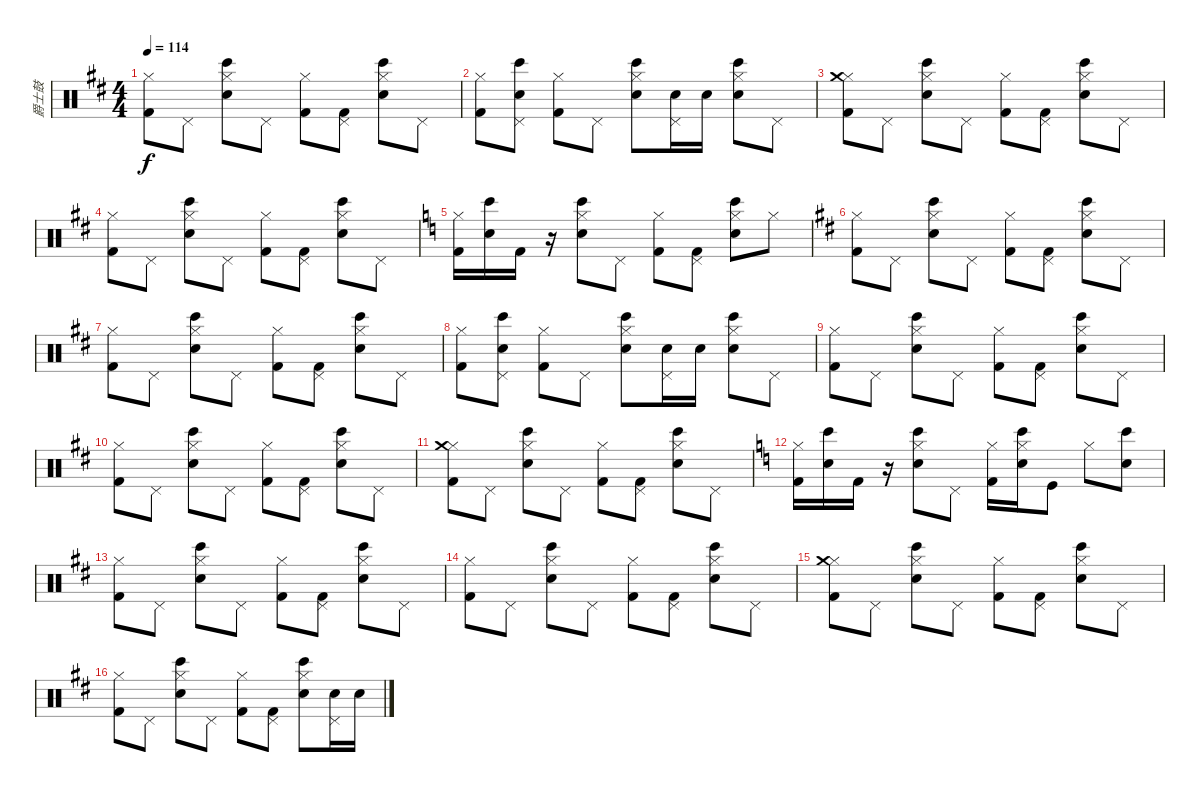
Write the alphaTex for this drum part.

\track ("爵士鼓" "爵士鼓") {instrument percussion}
\staff {score}
\articulation defaults
\ts (4 4)
\tempo 114
\clef neutral
\ks d
("Hi-Hat (closed)" "Kick (hit) 2").8{dy f} "Pedal Hi-Hat (hit)".8 ("Hi-Hat (closed)" "Snare (hit) 2" "Bongo High (hit)").8 "Pedal Hi-Hat (hit)".8 ("Hi-Hat (closed)" "Kick (hit) 2").8 ("Pedal Hi-Hat (hit)" "Kick (hit) 2").8 ("Hi-Hat (closed)" "Snare (hit) 2" "Bongo High (hit)").8 "Pedal Hi-Hat (hit)".8 |
("Hi-Hat (closed)" "Kick (hit) 2").8 ("Pedal Hi-Hat (hit)" "Snare (hit) 2" "Bongo High (hit)").8 ("Hi-Hat (closed)" "Kick (hit) 2").8 "Pedal Hi-Hat (hit)".8 ("Hi-Hat (closed)" "Snare (hit) 2" "Bongo High (hit)").8 ("Pedal Hi-Hat (hit)" "Snare (hit) 2").16 "Snare (hit) 2".16 ("Hi-Hat (closed)" "Snare (hit) 2" "Bongo High (hit)").8 "Pedal Hi-Hat (hit)".8 |
("Hi-Hat (closed)" "Kick (hit) 2" "Crash medium (hit)").8 "Pedal Hi-Hat (hit)".8 ("Hi-Hat (closed)" "Snare (hit) 2" "Bongo High (hit)").8 "Pedal Hi-Hat (hit)".8 ("Hi-Hat (closed)" "Kick (hit) 2").8 ("Pedal Hi-Hat (hit)" "Kick (hit) 2").8 ("Hi-Hat (closed)" "Snare (hit) 2" "Bongo High (hit)").8 "Pedal Hi-Hat (hit)".8 |
("Hi-Hat (closed)" "Kick (hit) 2").8 "Pedal Hi-Hat (hit)".8 ("Hi-Hat (closed)" "Snare (hit) 2" "Bongo High (hit)").8 "Pedal Hi-Hat (hit)".8 ("Hi-Hat (closed)" "Kick (hit) 2").8 ("Pedal Hi-Hat (hit)" "Kick (hit) 2").8 ("Hi-Hat (closed)" "Snare (hit) 2" "Bongo High (hit)").8 "Pedal Hi-Hat (hit)".8 |
\ks c
("Hi-Hat (closed)" "Kick (hit) 2").16 ("Snare (hit) 2" "Bongo High (hit)").16 "Kick (hit) 2".16 r.16 ("Hi-Hat (closed)" "Snare (hit) 2" "Bongo High (hit)").8 "Pedal Hi-Hat (hit)".8 ("Hi-Hat (closed)" "Kick (hit) 2").8 ("Pedal Hi-Hat (hit)" "Kick (hit) 2").8 ("Snare (hit) 2" "Hi-Hat (closed)" "Bongo High (hit)").8 "Hi-Hat (closed)".8 |
\ks d
("Hi-Hat (closed)" "Kick (hit) 2").8 "Pedal Hi-Hat (hit)".8 ("Hi-Hat (closed)" "Snare (hit) 2" "Bongo High (hit)").8 "Pedal Hi-Hat (hit)".8 ("Hi-Hat (closed)" "Kick (hit) 2").8 ("Pedal Hi-Hat (hit)" "Kick (hit) 2").8 ("Hi-Hat (closed)" "Snare (hit) 2" "Bongo High (hit)").8 "Pedal Hi-Hat (hit)".8 |
("Hi-Hat (closed)" "Kick (hit) 2").8 "Pedal Hi-Hat (hit)".8 ("Hi-Hat (closed)" "Snare (hit) 2" "Bongo High (hit)").8 "Pedal Hi-Hat (hit)".8 ("Hi-Hat (closed)" "Kick (hit) 2").8 ("Pedal Hi-Hat (hit)" "Kick (hit) 2").8 ("Hi-Hat (closed)" "Snare (hit) 2" "Bongo High (hit)").8 "Pedal Hi-Hat (hit)".8 |
("Hi-Hat (closed)" "Kick (hit) 2").8 ("Pedal Hi-Hat (hit)" "Snare (hit) 2" "Bongo High (hit)").8 ("Hi-Hat (closed)" "Kick (hit) 2").8 "Pedal Hi-Hat (hit)".8 ("Hi-Hat (closed)" "Snare (hit) 2" "Bongo High (hit)").8 ("Pedal Hi-Hat (hit)" "Snare (hit) 2").16 "Snare (hit) 2".16 ("Hi-Hat (closed)" "Snare (hit) 2" "Bongo High (hit)").8 "Pedal Hi-Hat (hit)".8 |
("Hi-Hat (closed)" "Kick (hit) 2").8 "Pedal Hi-Hat (hit)".8 ("Hi-Hat (closed)" "Snare (hit) 2" "Bongo High (hit)").8 "Pedal Hi-Hat (hit)".8 ("Hi-Hat (closed)" "Kick (hit) 2").8 ("Pedal Hi-Hat (hit)" "Kick (hit) 2").8 ("Hi-Hat (closed)" "Snare (hit) 2" "Bongo High (hit)").8 "Pedal Hi-Hat (hit)".8 |
("Hi-Hat (closed)" "Kick (hit) 2").8 "Pedal Hi-Hat (hit)".8 ("Hi-Hat (closed)" "Snare (hit) 2" "Bongo High (hit)").8 "Pedal Hi-Hat (hit)".8 ("Hi-Hat (closed)" "Kick (hit) 2").8 ("Pedal Hi-Hat (hit)" "Kick (hit) 2").8 ("Hi-Hat (closed)" "Snare (hit) 2" "Bongo High (hit)").8 "Pedal Hi-Hat (hit)".8 |
("Hi-Hat (closed)" "Kick (hit) 2" "Crash medium (hit)").8 "Pedal Hi-Hat (hit)".8 ("Hi-Hat (closed)" "Snare (hit) 2" "Bongo High (hit)").8 "Pedal Hi-Hat (hit)".8 ("Hi-Hat (closed)" "Kick (hit) 2").8 ("Pedal Hi-Hat (hit)" "Kick (hit) 2").8 ("Hi-Hat (closed)" "Snare (hit) 2" "Bongo High (hit)").8 "Pedal Hi-Hat (hit)".8 |
\ks c
("Hi-Hat (closed)" "Kick (hit) 2").16 ("Snare (hit) 2" "Bongo High (hit)").16 "Kick (hit) 2".16 r.16 ("Hi-Hat (closed)" "Snare (hit) 2" "Bongo High (hit)").8 "Pedal Hi-Hat (hit)".8 ("Hi-Hat (closed)" "Kick (hit) 2").16 ("Snare (hit) 2" "Hi-Hat (closed)" "Bongo High (hit)").16 "Kick (hit)".8 "Hi-Hat (closed)".8 ("Snare (hit) 2" "Bongo High (hit)").8 |
\ks d
("Hi-Hat (closed)" "Kick (hit) 2").8 "Pedal Hi-Hat (hit)".8 ("Hi-Hat (closed)" "Snare (hit) 2" "Bongo High (hit)").8 "Pedal Hi-Hat (hit)".8 ("Hi-Hat (closed)" "Kick (hit) 2").8 ("Pedal Hi-Hat (hit)" "Kick (hit) 2").8 ("Hi-Hat (closed)" "Snare (hit) 2" "Bongo High (hit)").8 "Pedal Hi-Hat (hit)".8 |
("Hi-Hat (closed)" "Kick (hit) 2").8 "Pedal Hi-Hat (hit)".8 ("Hi-Hat (closed)" "Snare (hit) 2" "Bongo High (hit)").8 "Pedal Hi-Hat (hit)".8 ("Hi-Hat (closed)" "Kick (hit) 2").8 ("Pedal Hi-Hat (hit)" "Kick (hit) 2").8 ("Hi-Hat (closed)" "Snare (hit) 2" "Bongo High (hit)").8 "Pedal Hi-Hat (hit)".8 |
("Hi-Hat (closed)" "Kick (hit) 2" "Crash medium (hit)").8 "Pedal Hi-Hat (hit)".8 ("Hi-Hat (closed)" "Snare (hit) 2" "Bongo High (hit)").8 "Pedal Hi-Hat (hit)".8 ("Hi-Hat (closed)" "Kick (hit) 2").8 ("Pedal Hi-Hat (hit)" "Kick (hit) 2").8 ("Hi-Hat (closed)" "Snare (hit) 2" "Bongo High (hit)").8 "Pedal Hi-Hat (hit)".8 |
("Hi-Hat (closed)" "Kick (hit) 2").8 "Pedal Hi-Hat (hit)".8 ("Hi-Hat (closed)" "Snare (hit) 2" "Bongo High (hit)").8 "Pedal Hi-Hat (hit)".8 ("Hi-Hat (closed)" "Kick (hit) 2").8 ("Pedal Hi-Hat (hit)" "Kick (hit) 2").8 ("Hi-Hat (closed)" "Snare (hit) 2" "Bongo High (hit)").8 ("Pedal Hi-Hat (hit)" "Snare (hit) 2").16 "Snare (hit) 2".16
